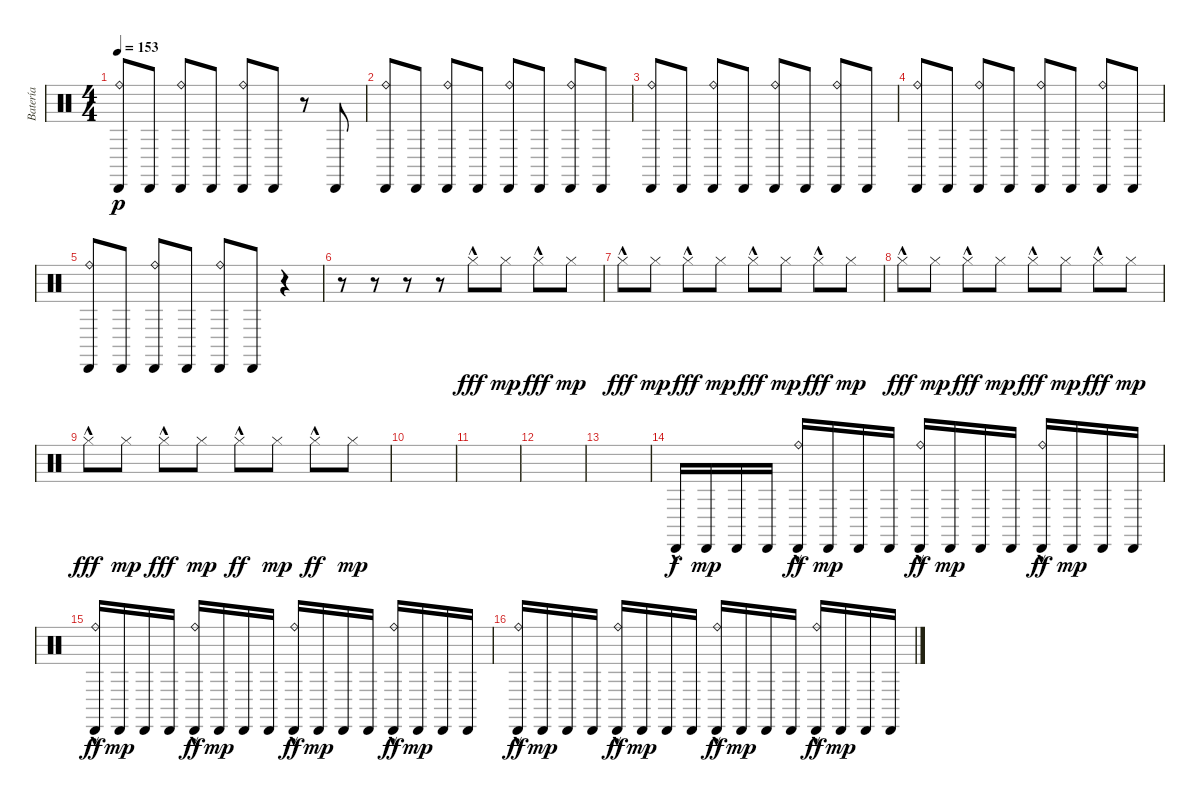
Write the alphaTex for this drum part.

\track ("Batería" "Batería") {instrument percussion}
\staff {score}
\articulation defaults
\ts (4 4)
\tempo 153
\clef neutral
\ks c
("Cabasa (hit)" "Ride (bell)").8{dy p} "Cabasa (hit)".8 ("Cabasa (hit)" "Ride (bell)").8 "Cabasa (hit)".8 ("Cabasa (hit)" "Ride (bell)").8 "Cabasa (hit)".8 r.8 "Cabasa (hit)".8 |
("Cabasa (hit)" "Ride (bell)").8 "Cabasa (hit)".8 ("Cabasa (hit)" "Ride (bell)").8 "Cabasa (hit)".8 ("Cabasa (hit)" "Ride (bell)").8 "Cabasa (hit)".8 ("Cabasa (hit)" "Ride (bell)").8 "Cabasa (hit)".8 |
("Cabasa (hit)" "Ride (bell)").8 "Cabasa (hit)".8 ("Cabasa (hit)" "Ride (bell)").8 "Cabasa (hit)".8 ("Cabasa (hit)" "Ride (bell)").8 "Cabasa (hit)".8 ("Cabasa (hit)" "Ride (bell)").8 "Cabasa (hit)".8 |
("Cabasa (hit)" "Ride (bell)").8 "Cabasa (hit)".8 ("Cabasa (hit)" "Ride (bell)").8 "Cabasa (hit)".8 ("Cabasa (hit)" "Ride (bell)").8 "Cabasa (hit)".8 ("Cabasa (hit)" "Ride (bell)").8 "Cabasa (hit)".8 |
("Cabasa (hit)" "Ride (bell)").8 "Cabasa (hit)".8 ("Cabasa (hit)" "Ride (bell)").8 "Cabasa (hit)".8 ("Cabasa (hit)" "Ride (bell)").8 "Cabasa (hit)".8 r.4 |
r.8 r.8 r.8 r.8 "Hi-Hat (closed)"{hac}.8{dy fff} "Hi-Hat (closed)".8{dy mp} "Hi-Hat (closed)"{hac}.8{dy fff} "Hi-Hat (closed)".8{dy mp} |
"Hi-Hat (closed)"{hac}.8{dy fff} "Hi-Hat (closed)".8{dy mp} "Hi-Hat (closed)"{hac}.8{dy fff} "Hi-Hat (closed)".8{dy mp} "Hi-Hat (closed)"{hac}.8{dy fff} "Hi-Hat (closed)".8{dy mp} "Hi-Hat (closed)"{hac}.8{dy fff} "Hi-Hat (closed)".8{dy mp} |
"Hi-Hat (closed)"{hac}.8{dy fff} "Hi-Hat (closed)".8{dy mp} "Hi-Hat (closed)"{hac}.8{dy fff} "Hi-Hat (closed)".8{dy mp} "Hi-Hat (closed)"{hac}.8{dy fff} "Hi-Hat (closed)".8{dy mp} "Hi-Hat (closed)"{hac}.8{dy fff} "Hi-Hat (closed)".8{dy mp} |
"Hi-Hat (closed)"{hac}.8{dy fff} "Hi-Hat (closed)".8{dy mp} "Hi-Hat (closed)"{hac}.8{dy fff} "Hi-Hat (closed)".8{dy mp} "Hi-Hat (closed)"{hac}.8{dy ff} "Hi-Hat (closed)".8{dy mp} "Hi-Hat (closed)"{hac}.8{dy ff} "Hi-Hat (closed)".8{dy mp} |
|
|
|
|
"Cabasa (hit)"{hac}.16{dy f} "Cabasa (hit)".16{dy mp} "Cabasa (hit)".16 "Cabasa (hit)".16 ("Cabasa (hit)"{hac} "Ride (bell)").16{dy ff} "Cabasa (hit)".16{dy mp} "Cabasa (hit)".16 "Cabasa (hit)".16 ("Cabasa (hit)"{hac} "Ride (bell)").16{dy ff} "Cabasa (hit)".16{dy mp} "Cabasa (hit)".16 "Cabasa (hit)".16 ("Cabasa (hit)"{hac} "Ride (bell)").16{dy ff} "Cabasa (hit)".16{dy mp} "Cabasa (hit)".16 "Cabasa (hit)".16 |
("Cabasa (hit)"{hac} "Ride (bell)").16{dy ff} "Cabasa (hit)".16{dy mp} "Cabasa (hit)".16 "Cabasa (hit)".16 ("Cabasa (hit)"{hac} "Ride (bell)").16{dy ff} "Cabasa (hit)".16{dy mp} "Cabasa (hit)".16 "Cabasa (hit)".16 ("Cabasa (hit)"{hac} "Ride (bell)").16{dy ff} "Cabasa (hit)".16{dy mp} "Cabasa (hit)".16 "Cabasa (hit)".16 ("Cabasa (hit)"{hac} "Ride (bell)").16{dy ff} "Cabasa (hit)".16{dy mp} "Cabasa (hit)".16 "Cabasa (hit)".16 |
("Cabasa (hit)"{hac} "Ride (bell)").16{dy ff} "Cabasa (hit)".16{dy mp} "Cabasa (hit)".16 "Cabasa (hit)".16 ("Cabasa (hit)"{hac} "Ride (bell)").16{dy ff} "Cabasa (hit)".16{dy mp} "Cabasa (hit)".16 "Cabasa (hit)".16 ("Cabasa (hit)"{hac} "Ride (bell)").16{dy ff} "Cabasa (hit)".16{dy mp} "Cabasa (hit)".16 "Cabasa (hit)".16 ("Cabasa (hit)"{hac} "Ride (bell)").16{dy ff} "Cabasa (hit)".16{dy mp} "Cabasa (hit)".16 "Cabasa (hit)".16
